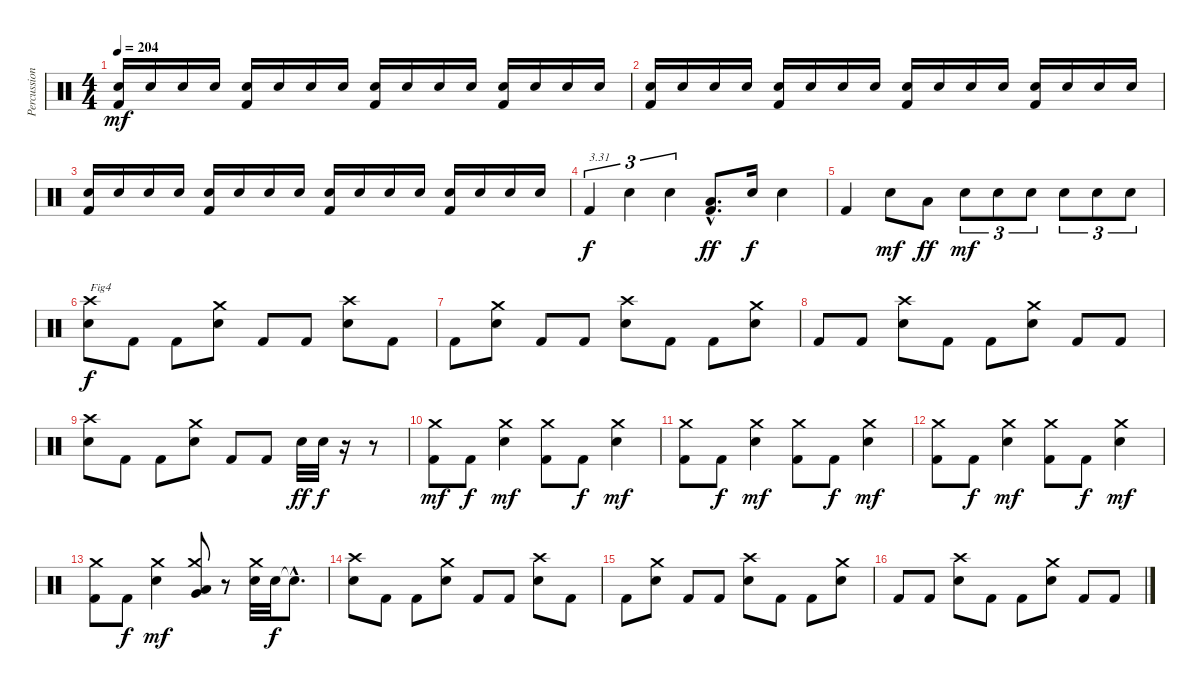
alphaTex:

\track ("Percussions" "Percussion") {instrument percussion}
\staff {score}
\articulation defaults
\ts (4 4)
\tempo 204
\clef neutral
\ks c
("Kick (hit) 2" "Electric Snare (hit)").16{dy mf} "Electric Snare (hit)".16 "Electric Snare (hit)".16 "Electric Snare (hit)".16 ("Kick (hit) 2" "Electric Snare (hit)").16 "Electric Snare (hit)".16 "Electric Snare (hit)".16 "Electric Snare (hit)".16 ("Kick (hit) 2" "Electric Snare (hit)").16 "Electric Snare (hit)".16 "Electric Snare (hit)".16 "Electric Snare (hit)".16 ("Kick (hit) 2" "Electric Snare (hit)").16 "Electric Snare (hit)".16 "Electric Snare (hit)".16 "Electric Snare (hit)".16 |
("Kick (hit) 2" "Electric Snare (hit)").16 "Electric Snare (hit)".16 "Electric Snare (hit)".16 "Electric Snare (hit)".16 ("Kick (hit) 2" "Electric Snare (hit)").16 "Electric Snare (hit)".16 "Electric Snare (hit)".16 "Electric Snare (hit)".16 ("Kick (hit) 2" "Electric Snare (hit)").16 "Electric Snare (hit)".16 "Electric Snare (hit)".16 "Electric Snare (hit)".16 ("Kick (hit) 2" "Electric Snare (hit)").16 "Electric Snare (hit)".16 "Electric Snare (hit)".16 "Electric Snare (hit)".16 |
("Kick (hit) 2" "Electric Snare (hit)").16 "Electric Snare (hit)".16 "Electric Snare (hit)".16 "Electric Snare (hit)".16 ("Kick (hit) 2" "Electric Snare (hit)").16 "Electric Snare (hit)".16 "Electric Snare (hit)".16 "Electric Snare (hit)".16 ("Kick (hit) 2" "Electric Snare (hit)").16 "Electric Snare (hit)".16 "Electric Snare (hit)".16 "Electric Snare (hit)".16 ("Kick (hit) 2" "Electric Snare (hit)").16 "Electric Snare (hit)".16 "Electric Snare (hit)".16 "Electric Snare (hit)".16 |
"Kick (hit) 2".4{tu (3 2) txt "3.31" dy f} "Electric Snare (hit)".4{tu (3 2)} "Electric Snare (hit)".4{tu (3 2)} ("Kick (hit) 2"{hac} "Low Floor Tom (hit)"{hac}).8{d dy ff} "Electric Snare (hit)".16{dy f} "Electric Snare (hit)".4 |
"Kick (hit) 2".4 "Electric Snare (hit)".8{dy mf} "Low Floor Tom (hit)".8{dy ff} "Electric Snare (hit)".8{tu (3 2) dy mf} "Electric Snare (hit)".8{tu (3 2)} "Electric Snare (hit)".8{tu (3 2)} "Electric Snare (hit)".8{tu (3 2)} "Electric Snare (hit)".8{tu (3 2)} "Electric Snare (hit)".8{tu (3 2)} |
("Electric Snare (hit)" "Crash high (hit)").8{txt "Fig4" dy f} "Kick (hit) 2".8 "Kick (hit) 2".8 ("Electric Snare (hit)" "Crash medium (hit)").8 "Kick (hit) 2".8 "Kick (hit) 2".8 ("Electric Snare (hit)" "Crash high (hit)").8 "Kick (hit) 2".8 |
"Kick (hit) 2".8 ("Electric Snare (hit)" "Crash medium (hit)").8 "Kick (hit) 2".8 "Kick (hit) 2".8 ("Electric Snare (hit)" "Crash high (hit)").8 "Kick (hit) 2".8 "Kick (hit) 2".8 ("Electric Snare (hit)" "Crash medium (hit)").8 |
"Kick (hit) 2".8 "Kick (hit) 2".8 ("Electric Snare (hit)" "Crash high (hit)").8 "Kick (hit) 2".8 "Kick (hit) 2".8 ("Electric Snare (hit)" "Crash medium (hit)").8 "Kick (hit) 2".8 "Kick (hit) 2".8 |
("Electric Snare (hit)" "Crash high (hit)").8 "Kick (hit) 2".8 "Kick (hit) 2".8 ("Electric Snare (hit)" "Crash medium (hit)").8 "Kick (hit) 2".8 "Kick (hit) 2".8 "Electric Snare (hit)".32{dy ff} "Electric Snare (hit)".32{dy f} r.16 r.8 |
("Kick (hit) 2" "Crash medium (hit)").8{dy mf} "Kick (hit) 2".8{dy f} ("Electric Snare (hit)" "Crash medium (hit)").4{dy mf} ("Kick (hit) 2" "Crash medium (hit)").8 "Kick (hit) 2".8{dy f} ("Electric Snare (hit)" "Crash medium (hit)").4{dy mf} |
("Kick (hit) 2" "Crash medium (hit)").8 "Kick (hit) 2".8{dy f} ("Electric Snare (hit)" "Crash medium (hit)").4{dy mf} ("Kick (hit) 2" "Crash medium (hit)").8 "Kick (hit) 2".8{dy f} ("Electric Snare (hit)" "Crash medium (hit)").4{dy mf} |
("Kick (hit) 2" "Crash medium (hit)").8 "Kick (hit) 2".8{dy f} ("Electric Snare (hit)" "Crash medium (hit)").4{dy mf} ("Kick (hit) 2" "Crash medium (hit)").8 "Kick (hit) 2".8{dy f} ("Electric Snare (hit)" "Crash medium (hit)").4{dy mf} |
("Kick (hit) 2" "Crash medium (hit)").8 "Kick (hit) 2".8{dy f} ("Electric Snare (hit)" "Crash medium (hit)").4{dy mf} ("Very Low Tom (hit)" "Low Floor Tom (hit)" "Crash medium (hit)").8 r.8 ("Electric Snare (hit)" "Crash medium (hit)").32 "Electric Snare (hit)".32{dy f} "Snare (hit)"{hac t}.8{d} |
("Electric Snare (hit)" "Crash high (hit)").8 "Kick (hit) 2".8 "Kick (hit) 2".8 ("Electric Snare (hit)" "Crash medium (hit)").8 "Kick (hit) 2".8 "Kick (hit) 2".8 ("Electric Snare (hit)" "Crash high (hit)").8 "Kick (hit) 2".8 |
"Kick (hit) 2".8 ("Electric Snare (hit)" "Crash medium (hit)").8 "Kick (hit) 2".8 "Kick (hit) 2".8 ("Electric Snare (hit)" "Crash high (hit)").8 "Kick (hit) 2".8 "Kick (hit) 2".8 ("Electric Snare (hit)" "Crash medium (hit)").8 |
"Kick (hit) 2".8 "Kick (hit) 2".8 ("Electric Snare (hit)" "Crash high (hit)").8 "Kick (hit) 2".8 "Kick (hit) 2".8 ("Electric Snare (hit)" "Crash medium (hit)").8 "Kick (hit) 2".8 "Kick (hit) 2".8
